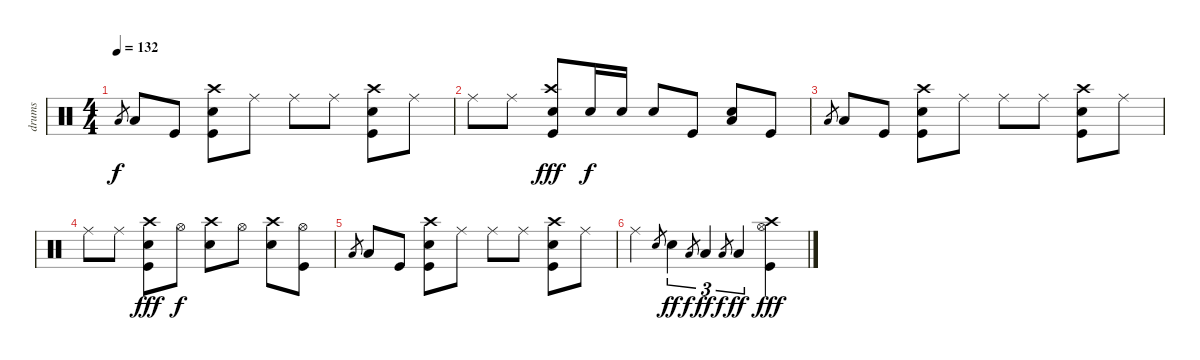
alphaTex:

\track ("drums" "drums") {instrument percussion}
\staff {score}
\articulation defaults
\ts (4 4)
\tempo 132
\clef neutral
\ks c "Low Floor Tom (hit)".8{gr dy f} "Low Tom (hit)".8 "Kick (hit)".8
("Crash high (hit)" "Electric Snare (hit)" "Kick (hit)").8 "Ride (middle)".8 "Ride (middle)".8 "Ride (middle)".8 ("Crash high (hit)" "Electric Snare (hit)" "Kick (hit)").8 "Ride (middle)".8 |
"Ride (middle)".8 "Ride (middle)".8 ("Crash high (hit)" "Electric Snare (hit)" "Kick (hit)").8{dy fff} "Electric Snare (hit)".16{dy f} "Electric Snare (hit)".16 "Electric Snare (hit)".8 "Kick (hit)".8 ("Low Tom (hit)" "Electric Snare (hit)").8 "Kick (hit)".8 |
"Low Floor Tom (hit)".8{gr} "Low Tom (hit)".8 "Kick (hit)".8 ("Crash high (hit)" "Electric Snare (hit)" "Kick (hit)").8 "Ride (middle)".8 "Ride (middle)".8 "Ride (middle)".8 ("Crash high (hit)" "Electric Snare (hit)" "Kick (hit)").8 "Ride (middle)".8 |
"Ride (middle)".8 "Ride (middle)".8 ("Crash high (hit)" "Electric Snare (hit)" "Kick (hit)").8{dy fff} "Hi-Hat (open)".8{dy f} ("Crash high (hit)" "Electric Snare (hit)").8 "Hi-Hat (open)".8 ("Crash high (hit)" "Electric Snare (hit)").8 ("Hi-Hat (open)" "Kick (hit)").8 |
"Low Floor Tom (hit)".8{gr} "Low Tom (hit)".8 "Kick (hit)".8 ("Crash high (hit)" "Electric Snare (hit)" "Kick (hit)").8 "Ride (middle)".8 "Ride (middle)".8 "Ride (middle)".8 ("Crash high (hit)" "Electric Snare (hit)" "Kick (hit)").8 "Ride (middle)".8 |
"Ride (middle)".4 "Electric Snare (hit)".8{gr} "Electric Snare (hit)".4{tu (3 2) dy ff} "Low Tom (hit)".8{gr dy f} "Low Tom (hit)".4{tu (3 2) dy ff} "Low Floor Tom (hit)".8{gr dy f} "Low Floor Tom (hit)".4{tu (3 2) dy ff} ("Hi-Hat (open)" "Crash high (hit)" "Kick (hit)").4{dy fff}
